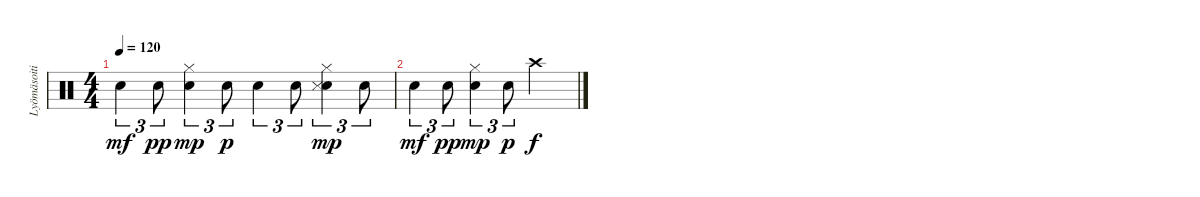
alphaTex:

\track ("Lyömäsoitin" "Lyömäsoiti") {instrument percussion}
\staff {score}
\articulation defaults
\ts (4 4)
\tempo 120
\clef neutral
\ks c "Snare (hit) 2".4{tu (3 2) dy mf} "Snare (hit) 2".8{tu (3 2) dy pp}
("Snare (hit) 2" "Hi-Hat (closed)").4{tu (3 2) dy mp} "Snare (hit) 2".8{tu (3 2) dy p} "Snare (hit) 2".4{tu (3 2)} "Snare (hit) 2".8{tu (3 2)} ("Snare (hit) 2" "Hi-Hat (closed)" "Snare (side stick) 3").4{tu (3 2) dy mp} "Snare (hit) 2".8{tu (3 2)} |
"Snare (hit) 2".4{tu (3 2) dy mf} "Snare (hit) 2".8{tu (3 2) dy pp} ("Snare (hit) 2" "Hi-Hat (closed)").4{tu (3 2) dy mp} "Snare (hit) 2".8{tu (3 2) dy p} "Crash high (hit)".2{dy f}
